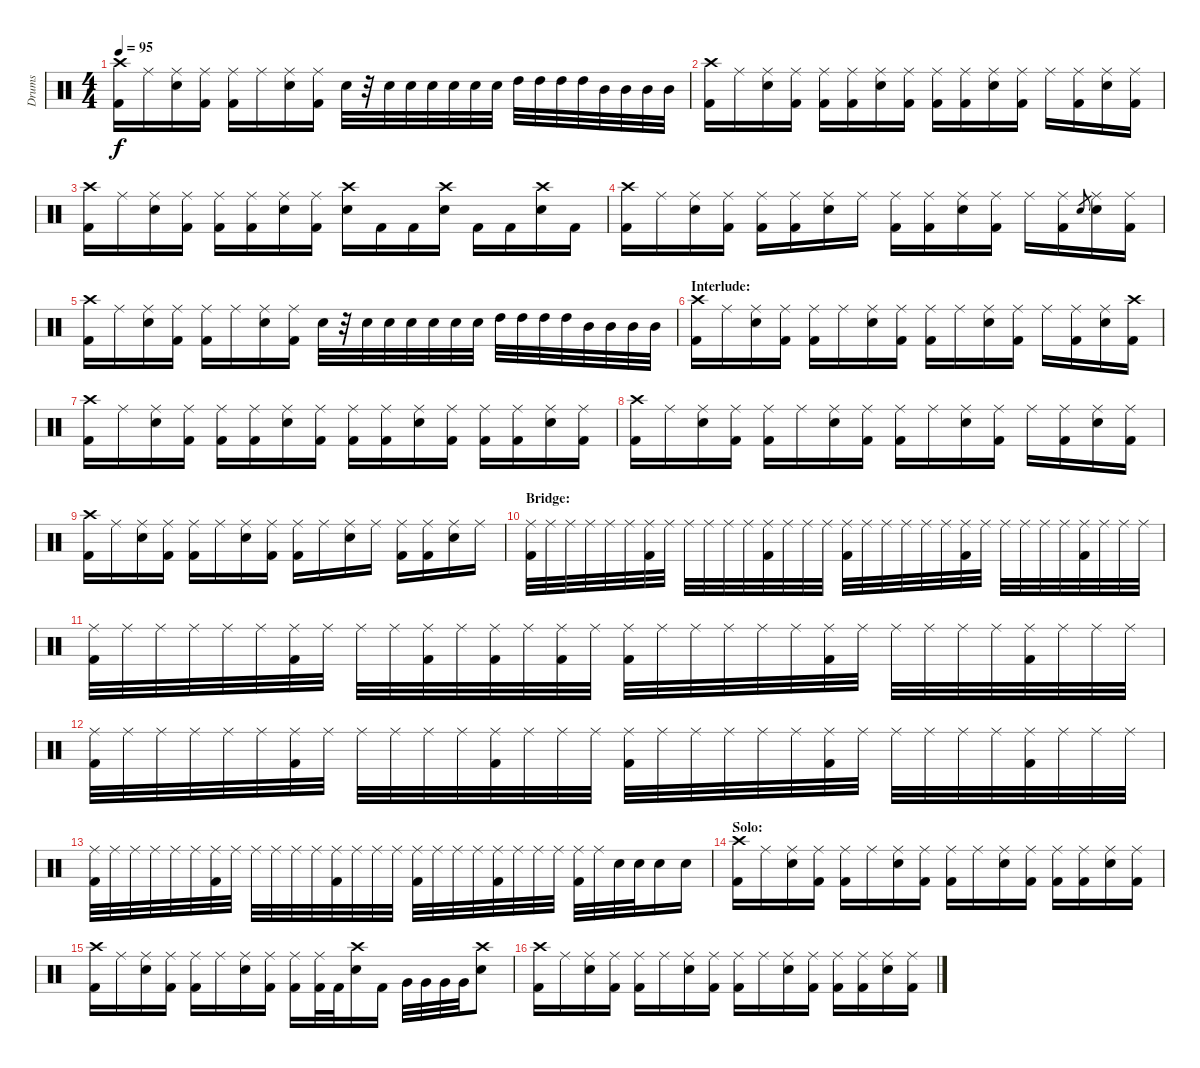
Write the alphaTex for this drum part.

\track ("Drums" "Drums") {instrument percussion}
\staff {score}
\articulation defaults
\ts (4 4)
\tempo 95
\clef neutral
\ks c
("Crash high (hit)" "Kick (hit) 2").16{dy f} "Ride (middle)".16 ("Ride (middle)" "Electric Snare (hit)").16 ("Ride (middle)" "Kick (hit) 2").16 ("Ride (middle)" "Kick (hit) 2").16 "Ride (middle)".16 ("Ride (middle)" "Electric Snare (hit)").16 ("Ride (middle)" "Kick (hit) 2").16 "Electric Snare (hit)".32 r.32 "Electric Snare (hit)".32 "Electric Snare (hit)".32 "Electric Snare (hit)".32 "Electric Snare (hit)".32 "Electric Snare (hit)".32 "Electric Snare (hit)".32 "High Tom (hit)".32 "High Tom (hit)".32 "High Tom (hit)".32 "High Tom (hit)".32 "Mid Tom (hit)".32 "Mid Tom (hit)".32 "Mid Tom (hit)".32 "Mid Tom (hit)".32 |
("Crash high (hit)" "Kick (hit) 2").16 "Ride (middle)".16 ("Ride (middle)" "Electric Snare (hit)").16 ("Ride (middle)" "Kick (hit) 2").16 ("Ride (middle)" "Kick (hit) 2").16 ("Ride (middle)" "Kick (hit) 2").16 ("Ride (middle)" "Electric Snare (hit)").16 ("Ride (middle)" "Kick (hit) 2").16 ("Ride (middle)" "Kick (hit) 2").16 ("Ride (middle)" "Kick (hit) 2").16 ("Ride (middle)" "Electric Snare (hit)").16 ("Ride (middle)" "Kick (hit) 2").16 "Ride (middle)".16 ("Ride (middle)" "Kick (hit) 2").16 ("Ride (middle)" "Electric Snare (hit)").16 ("Ride (middle)" "Kick (hit) 2").16 |
("Crash high (hit)" "Kick (hit) 2").16 "Ride (middle)".16 ("Ride (middle)" "Electric Snare (hit)").16 ("Ride (middle)" "Kick (hit) 2").16 ("Ride (middle)" "Kick (hit) 2").16 ("Ride (middle)" "Kick (hit) 2").16 ("Ride (middle)" "Electric Snare (hit)").16 ("Ride (middle)" "Kick (hit) 2").16 ("Crash high (hit)" "Electric Snare (hit)").16 "Kick (hit) 2".16 "Kick (hit) 2".16 ("Crash high (hit)" "Electric Snare (hit)").16 "Kick (hit) 2".16 "Kick (hit) 2".16 ("Crash high (hit)" "Electric Snare (hit)").16 "Kick (hit) 2".16 |
("Crash high (hit)" "Kick (hit) 2").16 "Ride (middle)".16 ("Ride (middle)" "Electric Snare (hit)").16 ("Ride (middle)" "Kick (hit) 2").16 ("Ride (middle)" "Kick (hit) 2").16 ("Ride (middle)" "Kick (hit) 2").16 ("Ride (middle)" "Electric Snare (hit)").16 "Ride (middle)".16 ("Ride (middle)" "Kick (hit) 2").16 ("Ride (middle)" "Kick (hit) 2").16 ("Ride (middle)" "Electric Snare (hit)").16 ("Ride (middle)" "Kick (hit) 2").16 "Ride (middle)".16 ("Ride (middle)" "Kick (hit) 2").16 "Electric Snare (hit)".8{gr} ("Ride (middle)" "Electric Snare (hit)").16 ("Ride (middle)" "Kick (hit) 2").16 |
("Crash high (hit)" "Kick (hit) 2").16 "Ride (middle)".16 ("Ride (middle)" "Electric Snare (hit)").16 ("Ride (middle)" "Kick (hit) 2").16 ("Ride (middle)" "Kick (hit) 2").16 "Ride (middle)".16 ("Ride (middle)" "Electric Snare (hit)").16 ("Ride (middle)" "Kick (hit) 2").16 "Electric Snare (hit)".32 r.32 "Electric Snare (hit)".32 "Electric Snare (hit)".32 "Electric Snare (hit)".32 "Electric Snare (hit)".32 "Electric Snare (hit)".32 "Electric Snare (hit)".32 "High Tom (hit)".32 "High Tom (hit)".32 "High Tom (hit)".32 "High Tom (hit)".32 "Mid Tom (hit)".32 "Mid Tom (hit)".32 "Mid Tom (hit)".32 "Mid Tom (hit)".32 |
\section ("" "Interlude:")
("Crash high (hit)" "Kick (hit) 2").16 "Ride (middle)".16 ("Ride (middle)" "Electric Snare (hit)").16 ("Ride (middle)" "Kick (hit) 2").16 ("Ride (middle)" "Kick (hit) 2").16 "Ride (middle)".16 ("Ride (middle)" "Electric Snare (hit)").16 ("Ride (middle)" "Kick (hit) 2").16 ("Ride (middle)" "Kick (hit) 2").16 "Ride (middle)".16 ("Ride (middle)" "Electric Snare (hit)").16 ("Ride (middle)" "Kick (hit) 2").16 "Ride (middle)".16 ("Ride (middle)" "Kick (hit) 2").16 ("Ride (middle)" "Electric Snare (hit)").16 ("Crash high (hit)" "Kick (hit) 2").16 |
("Crash high (hit)" "Kick (hit) 2").16 "Ride (middle)".16 ("Ride (middle)" "Electric Snare (hit)").16 ("Ride (middle)" "Kick (hit) 2").16 ("Ride (middle)" "Kick (hit) 2").16 ("Ride (middle)" "Kick (hit) 2").16 ("Ride (middle)" "Electric Snare (hit)").16 ("Ride (middle)" "Kick (hit) 2").16 ("Ride (middle)" "Kick (hit) 2").16 ("Ride (middle)" "Kick (hit) 2").16 ("Ride (middle)" "Electric Snare (hit)").16 ("Ride (middle)" "Kick (hit) 2").16 ("Ride (middle)" "Kick (hit) 2").16 ("Ride (middle)" "Kick (hit) 2").16 ("Ride (middle)" "Electric Snare (hit)").16 ("Ride (middle)" "Kick (hit) 2").16 |
("Crash high (hit)" "Kick (hit) 2").16 "Ride (middle)".16 ("Ride (middle)" "Electric Snare (hit)").16 ("Ride (middle)" "Kick (hit) 2").16 ("Ride (middle)" "Kick (hit) 2").16 "Ride (middle)".16 ("Ride (middle)" "Electric Snare (hit)").16 ("Ride (middle)" "Kick (hit) 2").16 ("Ride (middle)" "Kick (hit) 2").16 "Ride (middle)".16 ("Ride (middle)" "Electric Snare (hit)").16 ("Ride (middle)" "Kick (hit) 2").16 "Ride (middle)".16 ("Ride (middle)" "Kick (hit) 2").16 ("Ride (middle)" "Electric Snare (hit)").16 ("Ride (middle)" "Kick (hit) 2").16 |
("Crash high (hit)" "Kick (hit) 2").16 "Ride (middle)".16 ("Ride (middle)" "Electric Snare (hit)").16 ("Ride (middle)" "Kick (hit) 2").16 ("Ride (middle)" "Kick (hit) 2").16 "Ride (middle)".16 ("Ride (middle)" "Electric Snare (hit)").16 ("Ride (middle)" "Kick (hit) 2").16 ("Ride (middle)" "Kick (hit) 2").16 "Ride (middle)".16 ("Ride (middle)" "Electric Snare (hit)").16 "Ride (middle)".16 ("Ride (middle)" "Kick (hit) 2").16 ("Ride (middle)" "Kick (hit) 2").16 ("Ride (middle)" "Electric Snare (hit)").16 "Ride (middle)".16 |
\section ("" "Bridge:")
("Ride (middle)" "Kick (hit) 2").32 "Ride (middle)".32 "Ride (middle)".32 "Ride (middle)".32 "Ride (middle)".32 "Ride (middle)".32 ("Ride (middle)" "Kick (hit) 2").32 "Ride (middle)".32 "Ride (middle)".32 "Ride (middle)".32 "Ride (middle)".32 "Ride (middle)".32 ("Ride (middle)" "Kick (hit) 2").32 "Ride (middle)".32 "Ride (middle)".32 "Ride (middle)".32 ("Ride (middle)" "Kick (hit) 2").32 "Ride (middle)".32 "Ride (middle)".32 "Ride (middle)".32 "Ride (middle)".32 "Ride (middle)".32 ("Ride (middle)" "Kick (hit) 2").32 "Ride (middle)".32 "Ride (middle)".32 "Ride (middle)".32 "Ride (middle)".32 "Ride (middle)".32 ("Ride (middle)" "Kick (hit) 2").32 "Ride (middle)".32 "Ride (middle)".32 "Ride (middle)".32 |
("Ride (middle)" "Kick (hit) 2").32 "Ride (middle)".32 "Ride (middle)".32 "Ride (middle)".32 "Ride (middle)".32 "Ride (middle)".32 ("Ride (middle)" "Kick (hit) 2").32 "Ride (middle)".32 "Ride (middle)".32 "Ride (middle)".32 ("Ride (middle)" "Kick (hit) 2").32 "Ride (middle)".32 ("Ride (middle)" "Kick (hit) 2").32 "Ride (middle)".32 ("Ride (middle)" "Kick (hit) 2").32 "Ride (middle)".32 ("Ride (middle)" "Kick (hit) 2").32 "Ride (middle)".32 "Ride (middle)".32 "Ride (middle)".32 "Ride (middle)".32 "Ride (middle)".32 ("Ride (middle)" "Kick (hit) 2").32 "Ride (middle)".32 "Ride (middle)".32 "Ride (middle)".32 "Ride (middle)".32 "Ride (middle)".32 ("Ride (middle)" "Kick (hit) 2").32 "Ride (middle)".32 "Ride (middle)".32 "Ride (middle)".32 |
("Ride (middle)" "Kick (hit) 2").32 "Ride (middle)".32 "Ride (middle)".32 "Ride (middle)".32 "Ride (middle)".32 "Ride (middle)".32 ("Ride (middle)" "Kick (hit) 2").32 "Ride (middle)".32 "Ride (middle)".32 "Ride (middle)".32 "Ride (middle)".32 "Ride (middle)".32 ("Ride (middle)" "Kick (hit) 2").32 "Ride (middle)".32 "Ride (middle)".32 "Ride (middle)".32 ("Ride (middle)" "Kick (hit) 2").32 "Ride (middle)".32 "Ride (middle)".32 "Ride (middle)".32 "Ride (middle)".32 "Ride (middle)".32 ("Ride (middle)" "Kick (hit) 2").32 "Ride (middle)".32 "Ride (middle)".32 "Ride (middle)".32 "Ride (middle)".32 "Ride (middle)".32 ("Ride (middle)" "Kick (hit) 2").32 "Ride (middle)".32 "Ride (middle)".32 "Ride (middle)".32 |
("Ride (middle)" "Kick (hit) 2").32 "Ride (middle)".32 "Ride (middle)".32 "Ride (middle)".32 "Ride (middle)".32 "Ride (middle)".32 ("Ride (middle)" "Kick (hit) 2").32 "Ride (middle)".32 "Ride (middle)".32 "Ride (middle)".32 "Ride (middle)".32 "Ride (middle)".32 ("Ride (middle)" "Kick (hit) 2").32 "Ride (middle)".32 "Ride (middle)".32 "Ride (middle)".32 ("Ride (middle)" "Kick (hit) 2").32 "Ride (middle)".32 "Ride (middle)".32 "Ride (middle)".32 ("Ride (middle)" "Kick (hit) 2").32 "Ride (middle)".32 "Ride (middle)".32 "Ride (middle)".32 ("Ride (middle)" "Kick (hit) 2").32 "Ride (middle)".32 "Electric Snare (hit)".32 "Electric Snare (hit)".32 "Electric Snare (hit)".16 "Electric Snare (hit)".16 |
\section ("" "Solo:")
("Crash high (hit)" "Kick (hit) 2").16 "Ride (middle)".16 ("Ride (middle)" "Electric Snare (hit)").16 ("Ride (middle)" "Kick (hit) 2").16 ("Ride (middle)" "Kick (hit) 2").16 "Ride (middle)".16 ("Ride (middle)" "Electric Snare (hit)").16 ("Ride (middle)" "Kick (hit) 2").16 ("Ride (middle)" "Kick (hit) 2").16 "Ride (middle)".16 ("Ride (middle)" "Electric Snare (hit)").16 ("Ride (middle)" "Kick (hit) 2").16 ("Ride (middle)" "Kick (hit) 2").16 ("Ride (middle)" "Kick (hit) 2").16 ("Ride (middle)" "Electric Snare (hit)").16 ("Ride (middle)" "Kick (hit) 2").16 |
("Crash high (hit)" "Kick (hit) 2").16 "Ride (middle)".16 ("Ride (middle)" "Electric Snare (hit)").16 ("Ride (middle)" "Kick (hit) 2").16 ("Ride (middle)" "Kick (hit) 2").16 "Ride (middle)".16 ("Ride (middle)" "Electric Snare (hit)").16 ("Ride (middle)" "Kick (hit) 2").16 ("Ride (middle)" "Kick (hit) 2").16 ("Ride (middle)" "Kick (hit) 2").32 "Kick (hit) 2".32 ("Crash high (hit)" "Electric Snare (hit)").16 "Kick (hit) 2".16 "Very Low Tom (hit)".32 "Very Low Tom (hit)".32 "Very Low Tom (hit)".32 "Very Low Tom (hit)".32 ("Crash high (hit)" "Electric Snare (hit)").8 |
("Crash high (hit)" "Kick (hit) 2").16 "Ride (middle)".16 ("Ride (middle)" "Electric Snare (hit)").16 ("Ride (middle)" "Kick (hit) 2").16 ("Ride (middle)" "Kick (hit) 2").16 "Ride (middle)".16 ("Ride (middle)" "Electric Snare (hit)").16 ("Ride (middle)" "Kick (hit) 2").16 ("Ride (middle)" "Kick (hit) 2").16 "Ride (middle)".16 ("Ride (middle)" "Electric Snare (hit)").16 ("Ride (middle)" "Kick (hit) 2").16 ("Ride (middle)" "Kick (hit) 2").16 ("Ride (middle)" "Kick (hit) 2").16 ("Ride (middle)" "Electric Snare (hit)").16 ("Ride (middle)" "Kick (hit) 2").16
